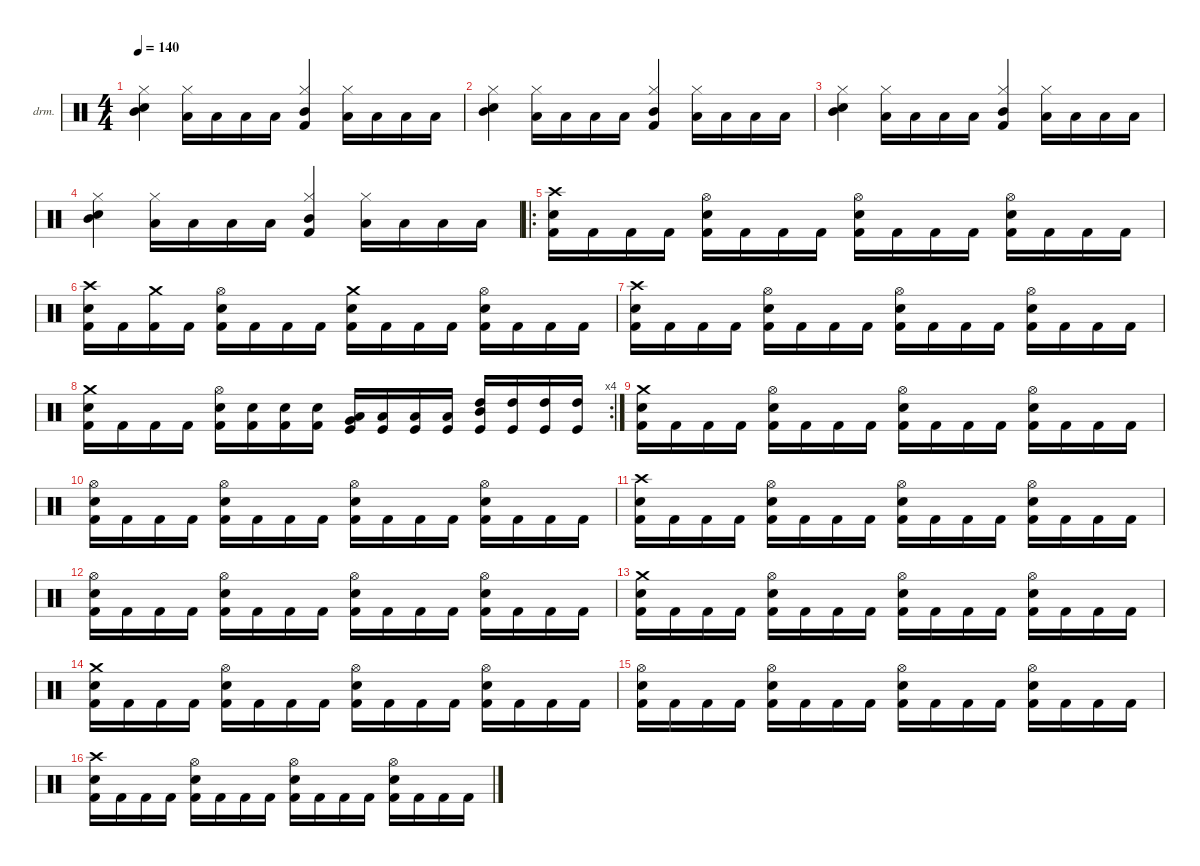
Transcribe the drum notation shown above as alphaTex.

\defaultSystemsLayout 4
\hideDynamics
\bracketExtendMode nobrackets
\firstSystemTrackNameOrientation horizontal
\otherSystemsTrackNameOrientation horizontal
\track ("Drumkit" "drm.") {instrument percussion}
\staff {score}
\articulation defaults
\ts (4 4)
\tempo 140
\clef neutral
\ks c
("Snare (hit) 2" "Mid Tom (hit)" "Hi-Hat (closed)").4{dy fff} ("Low Tom (hit)" "Hi-Hat (closed)").16 "Low Tom (hit)".16 "Low Tom (hit)".16 "Low Tom (hit)".16 ("Mid Tom (hit)" "Kick (hit) 2" "Hi-Hat (closed)").4 ("Low Tom (hit)" "Hi-Hat (closed)").16 "Low Tom (hit)".16 "Low Tom (hit)".16 "Low Tom (hit)".16 |
("Snare (hit) 2" "Mid Tom (hit)" "Hi-Hat (closed)").4 ("Low Tom (hit)" "Hi-Hat (closed)").16 "Low Tom (hit)".16 "Low Tom (hit)".16 "Low Tom (hit)".16 ("Mid Tom (hit)" "Kick (hit) 2" "Hi-Hat (closed)").4 ("Low Tom (hit)" "Hi-Hat (closed)").16 "Low Tom (hit)".16 "Low Tom (hit)".16 "Low Tom (hit)".16 |
("Snare (hit) 2" "Mid Tom (hit)" "Hi-Hat (closed)").4 ("Low Tom (hit)" "Hi-Hat (closed)").16 "Low Tom (hit)".16 "Low Tom (hit)".16 "Low Tom (hit)".16 ("Mid Tom (hit)" "Kick (hit) 2" "Hi-Hat (closed)").4 ("Low Tom (hit)" "Hi-Hat (closed)").16 "Low Tom (hit)".16 "Low Tom (hit)".16 "Low Tom (hit)".16 |
("Snare (hit) 2" "Mid Tom (hit)" "Hi-Hat (closed)").4 ("Low Tom (hit)" "Hi-Hat (closed)").16 "Low Tom (hit)".16 "Low Tom (hit)".16 "Low Tom (hit)".16 ("Mid Tom (hit)" "Kick (hit) 2" "Hi-Hat (closed)").4 ("Low Tom (hit)" "Hi-Hat (closed)").16 "Low Tom (hit)".16 "Low Tom (hit)".16 "Low Tom (hit)".16 |
\ro
("Crash high (hit)" "Snare (hit) 2" "Kick (hit) 2").16{dy f} "Kick (hit) 2".16 "Kick (hit) 2".16 "Kick (hit) 2".16 ("Hi-Hat (open)" "Snare (hit) 2" "Kick (hit) 2").16 "Kick (hit) 2".16 "Kick (hit) 2".16 "Kick (hit) 2".16 ("Hi-Hat (open)" "Snare (hit) 2" "Kick (hit) 2").16 "Kick (hit) 2".16 "Kick (hit) 2".16 "Kick (hit) 2".16 ("Hi-Hat (open)" "Snare (hit) 2" "Kick (hit) 2").16 "Kick (hit) 2".16 "Kick (hit) 2".16 "Kick (hit) 2".16 |
("Crash high (hit)" "Snare (hit) 2" "Kick (hit) 2").16 "Kick (hit) 2".16 ("Kick (hit) 2" "Crash medium (hit)").16 "Kick (hit) 2".16 ("Hi-Hat (open)" "Snare (hit) 2" "Kick (hit) 2").16 "Kick (hit) 2".16 "Kick (hit) 2".16 "Kick (hit) 2".16 ("Snare (hit) 2" "Kick (hit) 2" "Crash medium (hit)").16 "Kick (hit) 2".16 "Kick (hit) 2".16 "Kick (hit) 2".16 ("Hi-Hat (open)" "Snare (hit) 2" "Kick (hit) 2").16 "Kick (hit) 2".16 "Kick (hit) 2".16 "Kick (hit) 2".16 |
("Crash high (hit)" "Snare (hit) 2" "Kick (hit) 2").16 "Kick (hit) 2".16 "Kick (hit) 2".16 "Kick (hit) 2".16 ("Hi-Hat (open)" "Snare (hit) 2" "Kick (hit) 2").16 "Kick (hit) 2".16 "Kick (hit) 2".16 "Kick (hit) 2".16 ("Hi-Hat (open)" "Snare (hit) 2" "Kick (hit) 2").16 "Kick (hit) 2".16 "Kick (hit) 2".16 "Kick (hit) 2".16 ("Hi-Hat (open)" "Snare (hit) 2" "Kick (hit) 2").16 "Kick (hit) 2".16 "Kick (hit) 2".16 "Kick (hit) 2".16 |
\rc 4
("Snare (hit) 2" "Kick (hit) 2" "Crash medium (hit)").16 "Kick (hit) 2".16 "Kick (hit) 2".16 "Kick (hit) 2".16 ("Hi-Hat (open)" "Snare (hit) 2" "Kick (hit) 2").16 ("Kick (hit) 2" "Snare (hit) 2").16 ("Kick (hit) 2" "Snare (hit) 2").16 ("Kick (hit) 2" "Snare (hit) 2").16 ("Kick (hit)" "Very Low Tom (hit)" "Low Tom (hit)").16 ("Kick (hit)" "Low Tom (hit)").16 ("Kick (hit)" "Low Tom (hit)").16 ("Kick (hit)" "Low Tom (hit)").16 ("High Tom (hit)" "Mid Tom (hit)" "Kick (hit)").16 ("Kick (hit)" "High Tom (hit)").16 ("High Tom (hit)" "Kick (hit)").16 ("High Tom (hit)" "Kick (hit)").16 |
("Crash medium (hit)" "Snare (hit) 2" "Kick (hit) 2").16{dy mf} "Kick (hit) 2".16 "Kick (hit) 2".16 "Kick (hit) 2".16 ("Hi-Hat (open)" "Snare (hit) 2" "Kick (hit) 2").16 "Kick (hit) 2".16 "Kick (hit) 2".16 "Kick (hit) 2".16 ("Hi-Hat (open)" "Snare (hit) 2" "Kick (hit) 2").16 "Kick (hit) 2".16 "Kick (hit) 2".16 "Kick (hit) 2".16 ("Hi-Hat (open)" "Snare (hit) 2" "Kick (hit) 2").16 "Kick (hit) 2".16 "Kick (hit) 2".16 "Kick (hit) 2".16 |
("Hi-Hat (open)" "Snare (hit) 2" "Kick (hit) 2").16 "Kick (hit) 2".16 "Kick (hit) 2".16 "Kick (hit) 2".16 ("Hi-Hat (open)" "Snare (hit) 2" "Kick (hit) 2").16 "Kick (hit) 2".16 "Kick (hit) 2".16 "Kick (hit) 2".16 ("Hi-Hat (open)" "Snare (hit) 2" "Kick (hit) 2").16 "Kick (hit) 2".16 "Kick (hit) 2".16 "Kick (hit) 2".16 ("Hi-Hat (open)" "Snare (hit) 2" "Kick (hit) 2").16 "Kick (hit) 2".16 "Kick (hit) 2".16 "Kick (hit) 2".16 |
("Crash high (hit)" "Snare (hit) 2" "Kick (hit) 2").16 "Kick (hit) 2".16 "Kick (hit) 2".16 "Kick (hit) 2".16 ("Hi-Hat (open)" "Snare (hit) 2" "Kick (hit) 2").16 "Kick (hit) 2".16 "Kick (hit) 2".16 "Kick (hit) 2".16 ("Hi-Hat (open)" "Snare (hit) 2" "Kick (hit) 2").16 "Kick (hit) 2".16 "Kick (hit) 2".16 "Kick (hit) 2".16 ("Hi-Hat (open)" "Snare (hit) 2" "Kick (hit) 2").16 "Kick (hit) 2".16 "Kick (hit) 2".16 "Kick (hit) 2".16 |
("Hi-Hat (open)" "Snare (hit) 2" "Kick (hit) 2").16 "Kick (hit) 2".16 "Kick (hit) 2".16 "Kick (hit) 2".16 ("Hi-Hat (open)" "Snare (hit) 2" "Kick (hit) 2").16 "Kick (hit) 2".16 "Kick (hit) 2".16 "Kick (hit) 2".16 ("Hi-Hat (open)" "Snare (hit) 2" "Kick (hit) 2").16 "Kick (hit) 2".16 "Kick (hit) 2".16 "Kick (hit) 2".16 ("Hi-Hat (open)" "Snare (hit) 2" "Kick (hit) 2").16 "Kick (hit) 2".16 "Kick (hit) 2".16 "Kick (hit) 2".16 |
("Crash medium (hit)" "Snare (hit) 2" "Kick (hit) 2").16 "Kick (hit) 2".16 "Kick (hit) 2".16 "Kick (hit) 2".16 ("Hi-Hat (open)" "Snare (hit) 2" "Kick (hit) 2").16 "Kick (hit) 2".16 "Kick (hit) 2".16 "Kick (hit) 2".16 ("Hi-Hat (open)" "Snare (hit) 2" "Kick (hit) 2").16 "Kick (hit) 2".16 "Kick (hit) 2".16 "Kick (hit) 2".16 ("Hi-Hat (open)" "Snare (hit) 2" "Kick (hit) 2").16 "Kick (hit) 2".16 "Kick (hit) 2".16 "Kick (hit) 2".16 |
("Crash medium (hit)" "Snare (hit) 2" "Kick (hit) 2").16 "Kick (hit) 2".16 "Kick (hit) 2".16 "Kick (hit) 2".16 ("Hi-Hat (open)" "Snare (hit) 2" "Kick (hit) 2").16 "Kick (hit) 2".16 "Kick (hit) 2".16 "Kick (hit) 2".16 ("Hi-Hat (open)" "Snare (hit) 2" "Kick (hit) 2").16 "Kick (hit) 2".16 "Kick (hit) 2".16 "Kick (hit) 2".16 ("Hi-Hat (open)" "Snare (hit) 2" "Kick (hit) 2").16 "Kick (hit) 2".16 "Kick (hit) 2".16 "Kick (hit) 2".16 |
("Hi-Hat (open)" "Snare (hit) 2" "Kick (hit) 2").16 "Kick (hit) 2".16 "Kick (hit) 2".16 "Kick (hit) 2".16 ("Hi-Hat (open)" "Snare (hit) 2" "Kick (hit) 2").16 "Kick (hit) 2".16 "Kick (hit) 2".16 "Kick (hit) 2".16 ("Hi-Hat (open)" "Snare (hit) 2" "Kick (hit) 2").16 "Kick (hit) 2".16 "Kick (hit) 2".16 "Kick (hit) 2".16 ("Hi-Hat (open)" "Snare (hit) 2" "Kick (hit) 2").16 "Kick (hit) 2".16 "Kick (hit) 2".16 "Kick (hit) 2".16 |
("Crash high (hit)" "Snare (hit) 2" "Kick (hit) 2").16 "Kick (hit) 2".16 "Kick (hit) 2".16 "Kick (hit) 2".16 ("Hi-Hat (open)" "Snare (hit) 2" "Kick (hit) 2").16 "Kick (hit) 2".16 "Kick (hit) 2".16 "Kick (hit) 2".16 ("Hi-Hat (open)" "Snare (hit) 2" "Kick (hit) 2").16 "Kick (hit) 2".16 "Kick (hit) 2".16 "Kick (hit) 2".16 ("Hi-Hat (open)" "Snare (hit) 2" "Kick (hit) 2").16 "Kick (hit) 2".16 "Kick (hit) 2".16 "Kick (hit) 2".16
